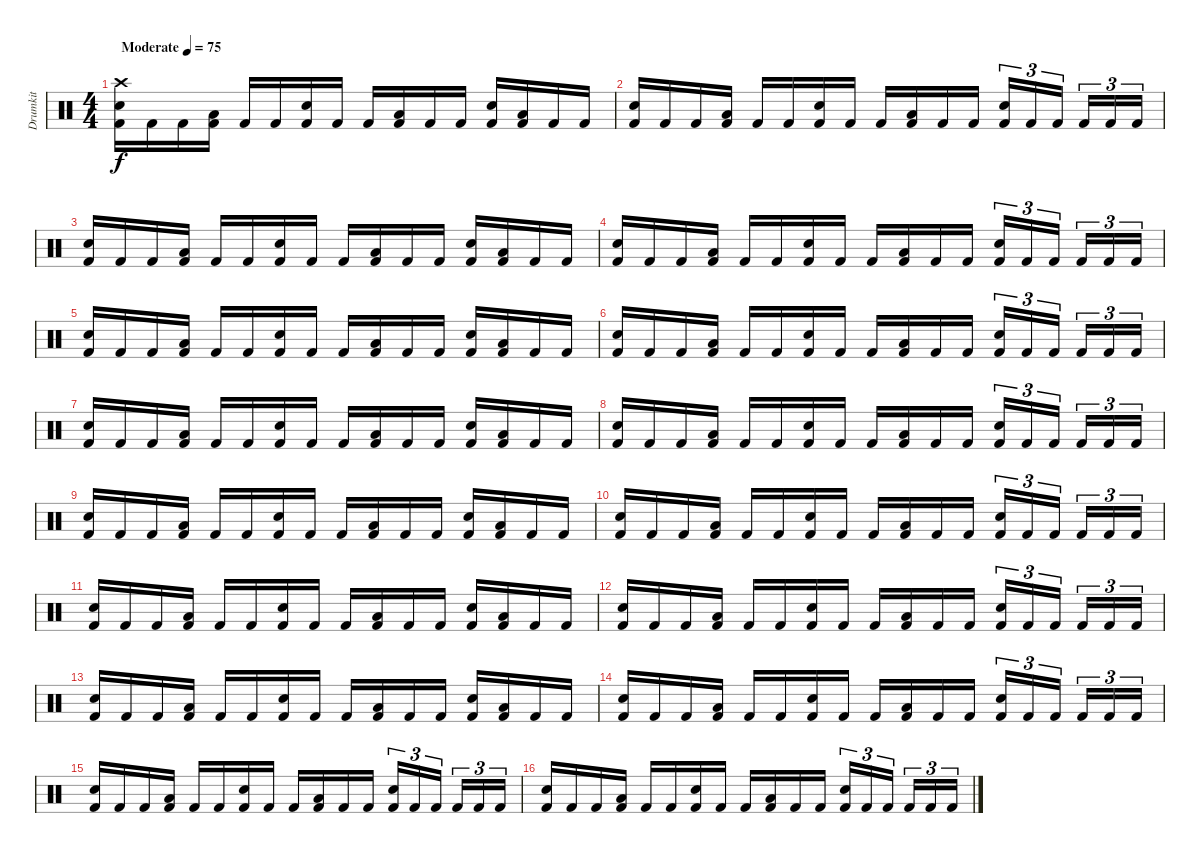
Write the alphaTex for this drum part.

\track ("Drumkit" "Drumkit") {instrument percussion}
\staff {score}
\articulation defaults
\ts (4 4)
\tempo (75 "Moderate")
\clef neutral
\ks c
("Crash high (hit)" "Snare (hit) 2" "Kick (hit) 2").16{dy f} "Kick (hit) 2".16 "Kick (hit) 2".16 ("Low Floor Tom (hit)" "Kick (hit) 2").16 "Kick (hit) 2".16 "Kick (hit) 2".16 ("Snare (hit) 2" "Kick (hit) 2").16 "Kick (hit) 2".16 "Kick (hit) 2".16 ("Low Floor Tom (hit)" "Kick (hit) 2").16 "Kick (hit) 2".16 "Kick (hit) 2".16 ("Snare (hit) 2" "Kick (hit) 2").16 ("Low Floor Tom (hit)" "Kick (hit) 2").16 "Kick (hit) 2".16 "Kick (hit) 2".16 |
("Snare (hit) 2" "Kick (hit) 2").16 "Kick (hit) 2".16 "Kick (hit) 2".16 ("Low Floor Tom (hit)" "Kick (hit) 2").16 "Kick (hit) 2".16 "Kick (hit) 2".16 ("Snare (hit) 2" "Kick (hit) 2").16 "Kick (hit) 2".16 "Kick (hit) 2".16 ("Low Floor Tom (hit)" "Kick (hit) 2").16 "Kick (hit) 2".16 "Kick (hit) 2".16 ("Snare (hit) 2" "Kick (hit) 2").16{tu (3 2)} "Kick (hit) 2".16{tu (3 2)} "Kick (hit) 2".16{tu (3 2)} "Kick (hit) 2".16{tu (3 2)} "Kick (hit) 2".16{tu (3 2)} "Kick (hit) 2".16{tu (3 2)} |
("Snare (hit) 2" "Kick (hit) 2").16 "Kick (hit) 2".16 "Kick (hit) 2".16 ("Low Floor Tom (hit)" "Kick (hit) 2").16 "Kick (hit) 2".16 "Kick (hit) 2".16 ("Snare (hit) 2" "Kick (hit) 2").16 "Kick (hit) 2".16 "Kick (hit) 2".16 ("Low Floor Tom (hit)" "Kick (hit) 2").16 "Kick (hit) 2".16 "Kick (hit) 2".16 ("Snare (hit) 2" "Kick (hit) 2").16 ("Low Floor Tom (hit)" "Kick (hit) 2").16 "Kick (hit) 2".16 "Kick (hit) 2".16 |
("Snare (hit) 2" "Kick (hit) 2").16 "Kick (hit) 2".16 "Kick (hit) 2".16 ("Low Floor Tom (hit)" "Kick (hit) 2").16 "Kick (hit) 2".16 "Kick (hit) 2".16 ("Snare (hit) 2" "Kick (hit) 2").16 "Kick (hit) 2".16 "Kick (hit) 2".16 ("Low Floor Tom (hit)" "Kick (hit) 2").16 "Kick (hit) 2".16 "Kick (hit) 2".16 ("Snare (hit) 2" "Kick (hit) 2").16{tu (3 2)} "Kick (hit) 2".16{tu (3 2)} "Kick (hit) 2".16{tu (3 2)} "Kick (hit) 2".16{tu (3 2)} "Kick (hit) 2".16{tu (3 2)} "Kick (hit) 2".16{tu (3 2)} |
("Snare (hit) 2" "Kick (hit) 2").16 "Kick (hit) 2".16 "Kick (hit) 2".16 ("Low Floor Tom (hit)" "Kick (hit) 2").16 "Kick (hit) 2".16 "Kick (hit) 2".16 ("Snare (hit) 2" "Kick (hit) 2").16 "Kick (hit) 2".16 "Kick (hit) 2".16 ("Low Floor Tom (hit)" "Kick (hit) 2").16 "Kick (hit) 2".16 "Kick (hit) 2".16 ("Snare (hit) 2" "Kick (hit) 2").16 ("Low Floor Tom (hit)" "Kick (hit) 2").16 "Kick (hit) 2".16 "Kick (hit) 2".16 |
("Snare (hit) 2" "Kick (hit) 2").16 "Kick (hit) 2".16 "Kick (hit) 2".16 ("Low Floor Tom (hit)" "Kick (hit) 2").16 "Kick (hit) 2".16 "Kick (hit) 2".16 ("Snare (hit) 2" "Kick (hit) 2").16 "Kick (hit) 2".16 "Kick (hit) 2".16 ("Low Floor Tom (hit)" "Kick (hit) 2").16 "Kick (hit) 2".16 "Kick (hit) 2".16 ("Snare (hit) 2" "Kick (hit) 2").16{tu (3 2)} "Kick (hit) 2".16{tu (3 2)} "Kick (hit) 2".16{tu (3 2)} "Kick (hit) 2".16{tu (3 2)} "Kick (hit) 2".16{tu (3 2)} "Kick (hit) 2".16{tu (3 2)} |
("Snare (hit) 2" "Kick (hit) 2").16 "Kick (hit) 2".16 "Kick (hit) 2".16 ("Low Floor Tom (hit)" "Kick (hit) 2").16 "Kick (hit) 2".16 "Kick (hit) 2".16 ("Snare (hit) 2" "Kick (hit) 2").16 "Kick (hit) 2".16 "Kick (hit) 2".16 ("Low Floor Tom (hit)" "Kick (hit) 2").16 "Kick (hit) 2".16 "Kick (hit) 2".16 ("Snare (hit) 2" "Kick (hit) 2").16 ("Low Floor Tom (hit)" "Kick (hit) 2").16 "Kick (hit) 2".16 "Kick (hit) 2".16 |
("Snare (hit) 2" "Kick (hit) 2").16 "Kick (hit) 2".16 "Kick (hit) 2".16 ("Low Floor Tom (hit)" "Kick (hit) 2").16 "Kick (hit) 2".16 "Kick (hit) 2".16 ("Snare (hit) 2" "Kick (hit) 2").16 "Kick (hit) 2".16 "Kick (hit) 2".16 ("Low Floor Tom (hit)" "Kick (hit) 2").16 "Kick (hit) 2".16 "Kick (hit) 2".16 ("Snare (hit) 2" "Kick (hit) 2").16{tu (3 2)} "Kick (hit) 2".16{tu (3 2)} "Kick (hit) 2".16{tu (3 2)} "Kick (hit) 2".16{tu (3 2)} "Kick (hit) 2".16{tu (3 2)} "Kick (hit) 2".16{tu (3 2)} |
("Snare (hit) 2" "Kick (hit) 2").16 "Kick (hit) 2".16 "Kick (hit) 2".16 ("Low Floor Tom (hit)" "Kick (hit) 2").16 "Kick (hit) 2".16 "Kick (hit) 2".16 ("Snare (hit) 2" "Kick (hit) 2").16 "Kick (hit) 2".16 "Kick (hit) 2".16 ("Low Floor Tom (hit)" "Kick (hit) 2").16 "Kick (hit) 2".16 "Kick (hit) 2".16 ("Snare (hit) 2" "Kick (hit) 2").16 ("Low Floor Tom (hit)" "Kick (hit) 2").16 "Kick (hit) 2".16 "Kick (hit) 2".16 |
("Snare (hit) 2" "Kick (hit) 2").16 "Kick (hit) 2".16 "Kick (hit) 2".16 ("Low Floor Tom (hit)" "Kick (hit) 2").16 "Kick (hit) 2".16 "Kick (hit) 2".16 ("Snare (hit) 2" "Kick (hit) 2").16 "Kick (hit) 2".16 "Kick (hit) 2".16 ("Low Floor Tom (hit)" "Kick (hit) 2").16 "Kick (hit) 2".16 "Kick (hit) 2".16 ("Snare (hit) 2" "Kick (hit) 2").16{tu (3 2)} "Kick (hit) 2".16{tu (3 2)} "Kick (hit) 2".16{tu (3 2)} "Kick (hit) 2".16{tu (3 2)} "Kick (hit) 2".16{tu (3 2)} "Kick (hit) 2".16{tu (3 2)} |
("Snare (hit) 2" "Kick (hit) 2").16 "Kick (hit) 2".16 "Kick (hit) 2".16 ("Low Floor Tom (hit)" "Kick (hit) 2").16 "Kick (hit) 2".16 "Kick (hit) 2".16 ("Snare (hit) 2" "Kick (hit) 2").16 "Kick (hit) 2".16 "Kick (hit) 2".16 ("Low Floor Tom (hit)" "Kick (hit) 2").16 "Kick (hit) 2".16 "Kick (hit) 2".16 ("Snare (hit) 2" "Kick (hit) 2").16 ("Low Floor Tom (hit)" "Kick (hit) 2").16 "Kick (hit) 2".16 "Kick (hit) 2".16 |
("Snare (hit) 2" "Kick (hit) 2").16 "Kick (hit) 2".16 "Kick (hit) 2".16 ("Low Floor Tom (hit)" "Kick (hit) 2").16 "Kick (hit) 2".16 "Kick (hit) 2".16 ("Snare (hit) 2" "Kick (hit) 2").16 "Kick (hit) 2".16 "Kick (hit) 2".16 ("Low Floor Tom (hit)" "Kick (hit) 2").16 "Kick (hit) 2".16 "Kick (hit) 2".16 ("Snare (hit) 2" "Kick (hit) 2").16{tu (3 2)} "Kick (hit) 2".16{tu (3 2)} "Kick (hit) 2".16{tu (3 2)} "Kick (hit) 2".16{tu (3 2)} "Kick (hit) 2".16{tu (3 2)} "Kick (hit) 2".16{tu (3 2)} |
("Snare (hit) 2" "Kick (hit) 2").16 "Kick (hit) 2".16 "Kick (hit) 2".16 ("Low Floor Tom (hit)" "Kick (hit) 2").16 "Kick (hit) 2".16 "Kick (hit) 2".16 ("Snare (hit) 2" "Kick (hit) 2").16 "Kick (hit) 2".16 "Kick (hit) 2".16 ("Low Floor Tom (hit)" "Kick (hit) 2").16 "Kick (hit) 2".16 "Kick (hit) 2".16 ("Snare (hit) 2" "Kick (hit) 2").16 ("Low Floor Tom (hit)" "Kick (hit) 2").16 "Kick (hit) 2".16 "Kick (hit) 2".16 |
("Snare (hit) 2" "Kick (hit) 2").16 "Kick (hit) 2".16 "Kick (hit) 2".16 ("Low Floor Tom (hit)" "Kick (hit) 2").16 "Kick (hit) 2".16 "Kick (hit) 2".16 ("Snare (hit) 2" "Kick (hit) 2").16 "Kick (hit) 2".16 "Kick (hit) 2".16 ("Low Floor Tom (hit)" "Kick (hit) 2").16 "Kick (hit) 2".16 "Kick (hit) 2".16 ("Snare (hit) 2" "Kick (hit) 2").16{tu (3 2)} "Kick (hit) 2".16{tu (3 2)} "Kick (hit) 2".16{tu (3 2)} "Kick (hit) 2".16{tu (3 2)} "Kick (hit) 2".16{tu (3 2)} "Kick (hit) 2".16{tu (3 2)} |
("Snare (hit) 2" "Kick (hit) 2").16 "Kick (hit) 2".16 "Kick (hit) 2".16 ("Low Floor Tom (hit)" "Kick (hit) 2").16 "Kick (hit) 2".16 "Kick (hit) 2".16 ("Snare (hit) 2" "Kick (hit) 2").16 "Kick (hit) 2".16 "Kick (hit) 2".16 ("Low Floor Tom (hit)" "Kick (hit) 2").16 "Kick (hit) 2".16 "Kick (hit) 2".16 ("Snare (hit) 2" "Kick (hit) 2").16{tu (3 2)} "Kick (hit) 2".16{tu (3 2)} "Kick (hit) 2".16{tu (3 2)} "Kick (hit) 2".16{tu (3 2)} "Kick (hit) 2".16{tu (3 2)} "Kick (hit) 2".16{tu (3 2)} |
("Snare (hit) 2" "Kick (hit) 2").16 "Kick (hit) 2".16 "Kick (hit) 2".16 ("Low Floor Tom (hit)" "Kick (hit) 2").16 "Kick (hit) 2".16 "Kick (hit) 2".16 ("Snare (hit) 2" "Kick (hit) 2").16 "Kick (hit) 2".16 "Kick (hit) 2".16 ("Low Floor Tom (hit)" "Kick (hit) 2").16 "Kick (hit) 2".16 "Kick (hit) 2".16 ("Snare (hit) 2" "Kick (hit) 2").16{tu (3 2)} "Kick (hit) 2".16{tu (3 2)} "Kick (hit) 2".16{tu (3 2)} "Kick (hit) 2".16{tu (3 2)} "Kick (hit) 2".16{tu (3 2)} "Kick (hit) 2".16{tu (3 2)}
